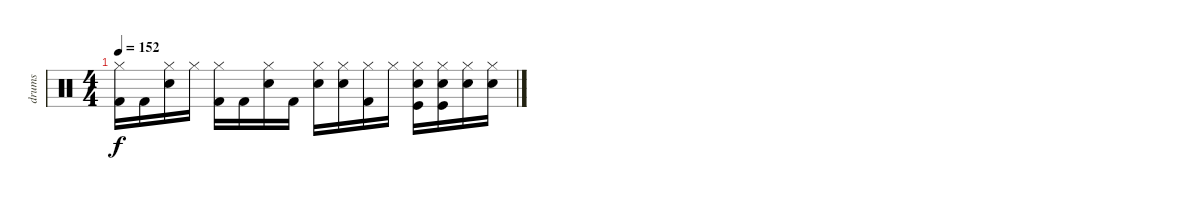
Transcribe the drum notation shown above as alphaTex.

\track ("drums" "drums") {instrument percussion}
\staff {score}
\articulation defaults
\ts (4 4)
\tempo 152
\clef neutral
\ks c
("Hi-Hat (closed)" "Kick (hit) 2").16{dy f} "Kick (hit) 2".16 ("Hi-Hat (closed)" "Snare (hit) 2").16 "Hi-Hat (closed)".16 ("Hi-Hat (closed)" "Kick (hit) 2").16 "Kick (hit) 2".16 ("Hi-Hat (closed)" "Snare (hit) 2").16 "Kick (hit) 2".16 ("Hi-Hat (closed)" "Snare (hit) 2").16 ("Hi-Hat (closed)" "Snare (hit) 2").16 ("Hi-Hat (closed)" "Kick (hit) 2").16 "Hi-Hat (closed)".16 ("Hi-Hat (closed)" "Snare (hit) 2" "Kick (hit)").16 ("Hi-Hat (closed)" "Snare (hit) 2" "Kick (hit)").16 ("Hi-Hat (closed)" "Snare (hit) 2").16 ("Hi-Hat (closed)" "Snare (hit) 2").16
